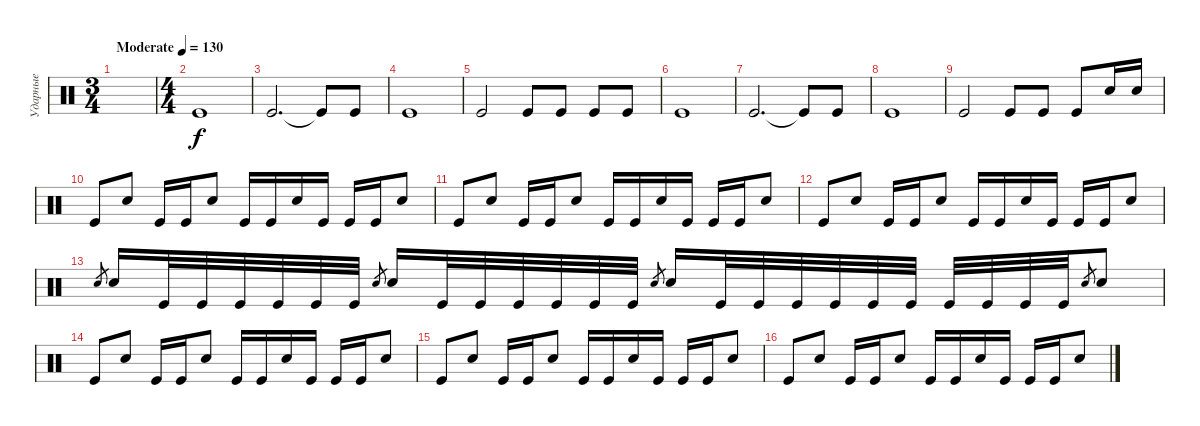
\track ("Ударные" "Ударные") {instrument percussion}
\staff {score}
\articulation defaults
\ts (3 4)
\tempo (130 "Moderate")
\clef neutral
\ks c
|
\ts (4 4)
"Kick (hit)".1 |
"Kick (hit)".2{d} "Kick (hit)"{t}.8 "Kick (hit)".8 |
"Kick (hit)".1 |
"Kick (hit)".2 "Kick (hit)".8 "Kick (hit)".8 "Kick (hit)".8 "Kick (hit)".8 |
"Kick (hit)".1 |
"Kick (hit)".2{d} "Kick (hit)"{t}.8 "Kick (hit)".8 |
"Kick (hit)".1 |
"Kick (hit)".2 "Kick (hit)".8 "Kick (hit)".8 "Kick (hit)".8 "Snare (hit) 2".16 "Snare (hit) 2".16 |
"Kick (hit)".8 "Snare (hit) 2".8 "Kick (hit)".16 "Kick (hit)".16 "Snare (hit) 2".8 "Kick (hit)".16 "Kick (hit)".16 "Snare (hit) 2".16 "Kick (hit)".16 "Kick (hit)".16 "Kick (hit)".16 "Snare (hit) 2".8 |
"Kick (hit)".8 "Snare (hit) 2".8 "Kick (hit)".16 "Kick (hit)".16 "Snare (hit) 2".8 "Kick (hit)".16 "Kick (hit)".16 "Snare (hit) 2".16 "Kick (hit)".16 "Kick (hit)".16 "Kick (hit)".16 "Snare (hit) 2".8 |
"Kick (hit)".8 "Snare (hit) 2".8 "Kick (hit)".16 "Kick (hit)".16 "Snare (hit) 2".8 "Kick (hit)".16 "Kick (hit)".16 "Snare (hit) 2".16 "Kick (hit)".16 "Kick (hit)".16 "Kick (hit)".16 "Snare (hit) 2".8 |
"Snare (hit) 2".8{gr} "Snare (hit) 2".16 "Kick (hit)".32 "Kick (hit)".32 "Kick (hit)".32 "Kick (hit)".32 "Kick (hit)".32 "Kick (hit)".32 "Snare (hit) 2".8{gr} "Snare (hit) 2".16 "Kick (hit)".32 "Kick (hit)".32 "Kick (hit)".32 "Kick (hit)".32 "Kick (hit)".32 "Kick (hit)".32 "Snare (hit) 2".8{gr} "Snare (hit) 2".16 "Kick (hit)".32 "Kick (hit)".32 "Kick (hit)".32 "Kick (hit)".32 "Kick (hit)".32 "Kick (hit)".32 "Kick (hit)".32 "Kick (hit)".32 "Kick (hit)".32 "Kick (hit)".32 "Snare (hit) 2".8{gr} "Snare (hit) 2".8 |
"Kick (hit)".8 "Snare (hit) 2".8 "Kick (hit)".16 "Kick (hit)".16 "Snare (hit) 2".8 "Kick (hit)".16 "Kick (hit)".16 "Snare (hit) 2".16 "Kick (hit)".16 "Kick (hit)".16 "Kick (hit)".16 "Snare (hit) 2".8 |
"Kick (hit)".8 "Snare (hit) 2".8 "Kick (hit)".16 "Kick (hit)".16 "Snare (hit) 2".8 "Kick (hit)".16 "Kick (hit)".16 "Snare (hit) 2".16 "Kick (hit)".16 "Kick (hit)".16 "Kick (hit)".16 "Snare (hit) 2".8 |
"Kick (hit)".8 "Snare (hit) 2".8 "Kick (hit)".16 "Kick (hit)".16 "Snare (hit) 2".8 "Kick (hit)".16 "Kick (hit)".16 "Snare (hit) 2".16 "Kick (hit)".16 "Kick (hit)".16 "Kick (hit)".16 "Snare (hit) 2".8
